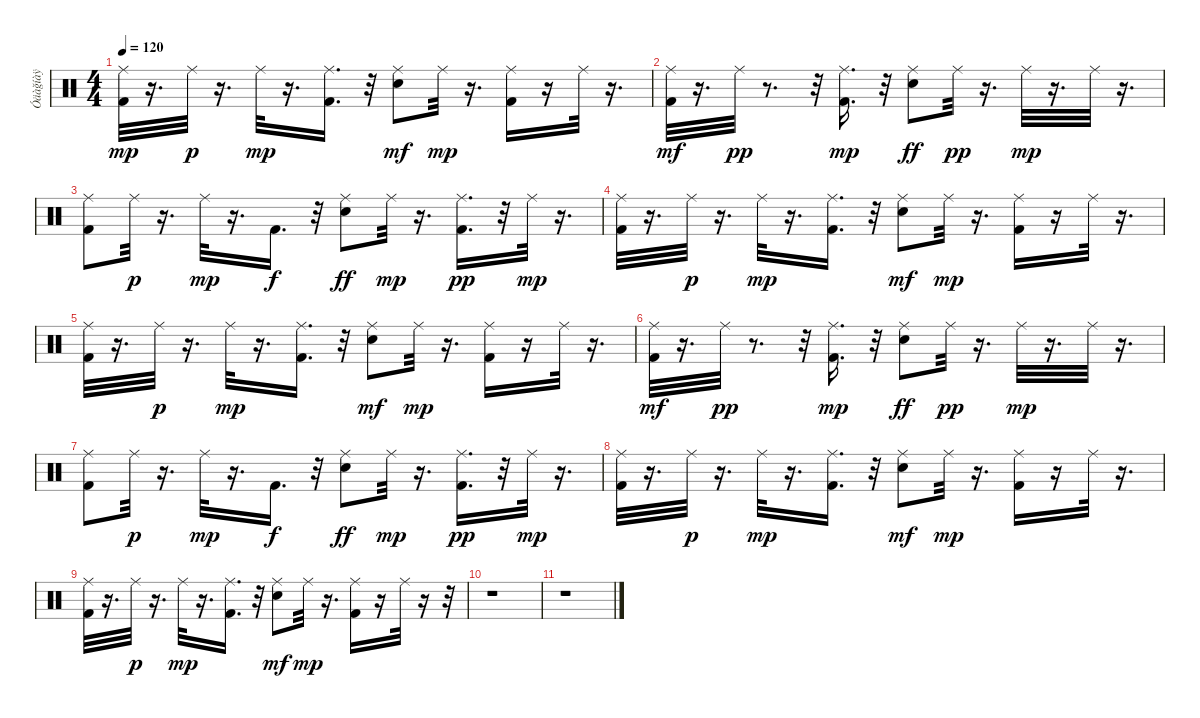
\track ("Óäàğíàÿ" "Óäàğíàÿ") {instrument percussion}
\staff {score}
\articulation defaults
\ts (4 4)
\tempo 120
\clef neutral
\ks c
("Kick (hit) 2" "Ride (middle)").32{dy mp} r.16{d} "Ride (middle)".32{dy p} r.16{d} "Ride (middle)".32{dy mp} r.16{d} ("Kick (hit) 2" "Ride (middle)").16{d} r.32 ("Snare (hit) 2" "Ride (middle)").8{dy mf} "Ride (middle)".32{dy mp} r.16{d} ("Kick (hit) 2" "Ride (middle)").16 r.16 "Ride (middle)".32 r.16{d} |
("Ride (middle)" "Kick (hit) 2").32{dy mf} r.16{d} "Ride (middle)".32{dy pp} r.8{d} r.32 ("Ride (middle)" "Kick (hit) 2").16{d dy mp} r.32 ("Ride (middle)" "Snare (hit) 2").8{dy ff} "Ride (middle)".32{dy pp} r.16{d} "Ride (middle)".32{dy mp} r.16{d} "Ride (middle)".32 r.16{d} |
("Kick (hit) 2" "Ride (middle)").8 "Ride (middle)".32{dy p} r.16{d} "Ride (middle)".32{dy mp} r.16{d} "Kick (hit) 2".16{d dy f} r.32 ("Ride (middle)" "Snare (hit) 2").8{dy ff} "Ride (middle)".32{dy mp} r.16{d} ("Kick (hit) 2" "Ride (middle)").16{d dy pp} r.32 "Ride (middle)".32{dy mp} r.16{d} |
("Kick (hit) 2" "Ride (middle)").32 r.16{d} "Ride (middle)".32{dy p} r.16{d} "Ride (middle)".32{dy mp} r.16{d} ("Kick (hit) 2" "Ride (middle)").16{d} r.32 ("Snare (hit) 2" "Ride (middle)").8{dy mf} "Ride (middle)".32{dy mp} r.16{d} ("Kick (hit) 2" "Ride (middle)").16 r.16 "Ride (middle)".32 r.16{d} |
("Kick (hit) 2" "Ride (middle)").32 r.16{d} "Ride (middle)".32{dy p} r.16{d} "Ride (middle)".32{dy mp} r.16{d} ("Kick (hit) 2" "Ride (middle)").16{d} r.32 ("Snare (hit) 2" "Ride (middle)").8{dy mf} "Ride (middle)".32{dy mp} r.16{d} ("Kick (hit) 2" "Ride (middle)").16 r.16 "Ride (middle)".32 r.16{d} |
("Ride (middle)" "Kick (hit) 2").32{dy mf} r.16{d} "Ride (middle)".32{dy pp} r.8{d} r.32 ("Ride (middle)" "Kick (hit) 2").16{d dy mp} r.32 ("Ride (middle)" "Snare (hit) 2").8{dy ff} "Ride (middle)".32{dy pp} r.16{d} "Ride (middle)".32{dy mp} r.16{d} "Ride (middle)".32 r.16{d} |
("Kick (hit) 2" "Ride (middle)").8 "Ride (middle)".32{dy p} r.16{d} "Ride (middle)".32{dy mp} r.16{d} "Kick (hit) 2".16{d dy f} r.32 ("Ride (middle)" "Snare (hit) 2").8{dy ff} "Ride (middle)".32{dy mp} r.16{d} ("Kick (hit) 2" "Ride (middle)").16{d dy pp} r.32 "Ride (middle)".32{dy mp} r.16{d} |
("Kick (hit) 2" "Ride (middle)").32 r.16{d} "Ride (middle)".32{dy p} r.16{d} "Ride (middle)".32{dy mp} r.16{d} ("Kick (hit) 2" "Ride (middle)").16{d} r.32 ("Snare (hit) 2" "Ride (middle)").8{dy mf} "Ride (middle)".32{dy mp} r.16{d} ("Kick (hit) 2" "Ride (middle)").16 r.16 "Ride (middle)".32 r.16{d} |
("Kick (hit) 2" "Ride (middle)").32 r.16{d} "Ride (middle)".32{dy p} r.16{d} "Ride (middle)".32{dy mp} r.16{d} ("Kick (hit) 2" "Ride (middle)").16{d} r.32 ("Snare (hit) 2" "Ride (middle)").8{dy mf} "Ride (middle)".32{dy mp} r.16{d} ("Kick (hit) 2" "Ride (middle)").16 r.16 "Ride (middle)".32 r.16 r.32 |
r.1 |
r.1
